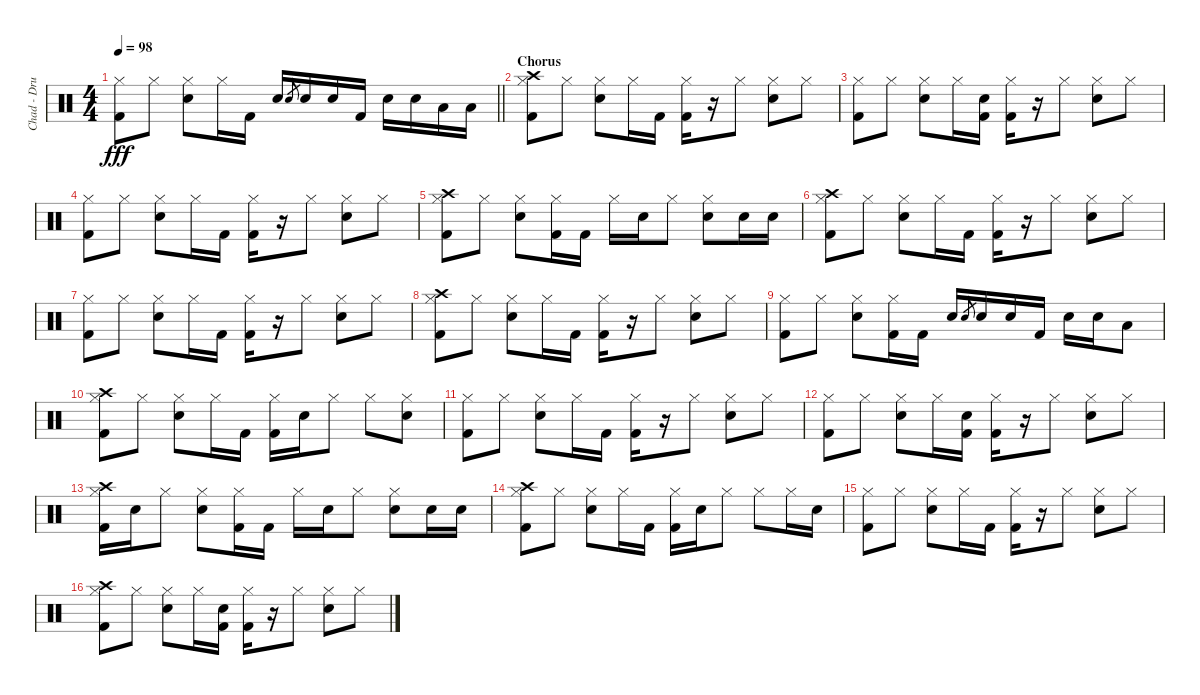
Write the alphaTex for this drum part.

\track ("Chad - Drums" "Chad - Dru") {instrument percussion}
\staff {score}
\articulation defaults
\ts (4 4)
\tempo 98
\clef neutral
\barLineRight lightlight
\ks c
("Hi-Hat (closed)" "Kick (hit) 2").8{dy fff} "Hi-Hat (closed)".8 ("Snare (hit) 2" "Hi-Hat (closed)").8 "Hi-Hat (closed)".16 "Kick (hit) 2".16 "Snare (hit) 2".16 "Snare (hit) 2".8{gr} "Snare (hit) 2".16 "Snare (hit) 2".16 "Kick (hit) 2".16 "Snare (hit) 2".16 "Snare (hit) 2".16 "Low Tom (hit)".16 "Low Tom (hit)".16 |
\section ("" "Chorus")
("Hi-Hat (closed)" "Crash high (hit)" "Kick (hit) 2").8 "Hi-Hat (closed)".8 ("Snare (hit) 2" "Hi-Hat (closed)").8 "Hi-Hat (closed)".16 "Kick (hit) 2".16 ("Hi-Hat (closed)" "Kick (hit) 2").16 r.16 "Hi-Hat (closed)".8 ("Snare (hit) 2" "Hi-Hat (closed)").8 "Hi-Hat (closed)".8 |
("Hi-Hat (closed)" "Kick (hit) 2").8 "Hi-Hat (closed)".8 ("Snare (hit) 2" "Hi-Hat (closed)").8 "Hi-Hat (closed)".16 ("Snare (hit) 2" "Kick (hit) 2").16 ("Hi-Hat (closed)" "Kick (hit) 2").16 r.16 "Hi-Hat (closed)".8 ("Snare (hit) 2" "Hi-Hat (closed)").8 "Hi-Hat (closed)".8 |
("Hi-Hat (closed)" "Kick (hit) 2").8 "Hi-Hat (closed)".8 ("Snare (hit) 2" "Hi-Hat (closed)").8 "Hi-Hat (closed)".16 "Kick (hit) 2".16 ("Hi-Hat (closed)" "Kick (hit) 2").16 r.16 "Hi-Hat (closed)".8 ("Snare (hit) 2" "Hi-Hat (closed)").8 "Hi-Hat (closed)".8 |
("Hi-Hat (closed)" "Crash high (hit)" "Kick (hit) 2").8 "Hi-Hat (closed)".8 ("Snare (hit) 2" "Hi-Hat (closed)").8 ("Hi-Hat (closed)" "Kick (hit) 2").16 "Kick (hit) 2".16 "Hi-Hat (closed)".16 "Snare (hit) 2".16 "Hi-Hat (closed)".8 ("Snare (hit) 2" "Hi-Hat (closed)").8 "Snare (hit) 2".16 "Snare (hit) 2".16 |
("Hi-Hat (closed)" "Crash high (hit)" "Kick (hit) 2").8 "Hi-Hat (closed)".8 ("Snare (hit) 2" "Hi-Hat (closed)").8 "Hi-Hat (closed)".16 "Kick (hit) 2".16 ("Hi-Hat (closed)" "Kick (hit) 2").16 r.16 "Hi-Hat (closed)".8 ("Snare (hit) 2" "Hi-Hat (closed)").8 "Hi-Hat (closed)".8 |
("Hi-Hat (closed)" "Kick (hit) 2").8 "Hi-Hat (closed)".8 ("Snare (hit) 2" "Hi-Hat (closed)").8 "Hi-Hat (closed)".16 "Kick (hit) 2".16 ("Hi-Hat (closed)" "Kick (hit) 2").16 r.16 "Hi-Hat (closed)".8 ("Snare (hit) 2" "Hi-Hat (closed)").8 "Hi-Hat (closed)".8 |
("Hi-Hat (closed)" "Crash high (hit)" "Kick (hit) 2").8 "Hi-Hat (closed)".8 ("Snare (hit) 2" "Hi-Hat (closed)").8 "Hi-Hat (closed)".16 "Kick (hit) 2".16 ("Hi-Hat (closed)" "Kick (hit) 2").16 r.16 "Hi-Hat (closed)".8 ("Snare (hit) 2" "Hi-Hat (closed)").8 "Hi-Hat (closed)".8 |
("Hi-Hat (closed)" "Kick (hit) 2").8 "Hi-Hat (closed)".8 ("Snare (hit) 2" "Hi-Hat (closed)").8 ("Hi-Hat (closed)" "Kick (hit) 2").16 "Kick (hit) 2".16 "Snare (hit) 2".16 "Snare (hit) 2".8{gr} "Snare (hit) 2".16 "Snare (hit) 2".16 "Kick (hit) 2".16 "Snare (hit) 2".16 "Snare (hit) 2".16 "Low Tom (hit)".8 |
("Hi-Hat (closed)" "Crash high (hit)" "Kick (hit) 2").8 "Hi-Hat (closed)".8 ("Snare (hit) 2" "Hi-Hat (closed)").8 "Hi-Hat (closed)".16 "Kick (hit) 2".16 ("Hi-Hat (closed)" "Kick (hit) 2").16 "Snare (hit) 2".16 "Hi-Hat (closed)".8 "Hi-Hat (closed)".8 ("Snare (hit) 2" "Hi-Hat (closed)").8 |
("Hi-Hat (closed)" "Kick (hit) 2").8 "Hi-Hat (closed)".8 ("Snare (hit) 2" "Hi-Hat (closed)").8 "Hi-Hat (closed)".16 "Kick (hit) 2".16 ("Hi-Hat (closed)" "Kick (hit) 2").16 r.16 "Hi-Hat (closed)".8 ("Snare (hit) 2" "Hi-Hat (closed)").8 "Hi-Hat (closed)".8 |
("Hi-Hat (closed)" "Kick (hit) 2").8 "Hi-Hat (closed)".8 ("Snare (hit) 2" "Hi-Hat (closed)").8 "Hi-Hat (closed)".16 ("Snare (hit) 2" "Kick (hit) 2").16 ("Hi-Hat (closed)" "Kick (hit) 2").16 r.16 "Hi-Hat (closed)".8 ("Snare (hit) 2" "Hi-Hat (closed)").8 "Hi-Hat (closed)".8 |
("Hi-Hat (closed)" "Crash high (hit)" "Kick (hit) 2").16 "Snare (hit) 2".16 "Hi-Hat (closed)".8 ("Snare (hit) 2" "Hi-Hat (closed)").8 ("Hi-Hat (closed)" "Kick (hit) 2").16 "Kick (hit) 2".16 "Hi-Hat (closed)".16 "Snare (hit) 2".16 "Hi-Hat (closed)".8 ("Snare (hit) 2" "Hi-Hat (closed)").8 "Snare (hit) 2".16 "Snare (hit) 2".16 |
("Hi-Hat (closed)" "Crash high (hit)" "Kick (hit) 2").8 "Hi-Hat (closed)".8 ("Snare (hit) 2" "Hi-Hat (closed)").8 "Hi-Hat (closed)".16 "Kick (hit) 2".16 ("Hi-Hat (closed)" "Kick (hit) 2").16 "Snare (hit) 2".16 "Hi-Hat (closed)".8 "Hi-Hat (closed)".8 "Hi-Hat (closed)".16 "Snare (hit) 2".16 |
("Hi-Hat (closed)" "Kick (hit) 2").8 "Hi-Hat (closed)".8 ("Snare (hit) 2" "Hi-Hat (closed)").8 "Hi-Hat (closed)".16 "Kick (hit) 2".16 ("Hi-Hat (closed)" "Kick (hit) 2").16 r.16 "Hi-Hat (closed)".8 ("Snare (hit) 2" "Hi-Hat (closed)").8 "Hi-Hat (closed)".8 |
("Hi-Hat (closed)" "Crash high (hit)" "Kick (hit) 2").8 "Hi-Hat (closed)".8 ("Snare (hit) 2" "Hi-Hat (closed)").8 "Hi-Hat (closed)".16 ("Snare (hit) 2" "Kick (hit) 2").16 ("Hi-Hat (closed)" "Kick (hit) 2").16 r.16 "Hi-Hat (closed)".8 ("Snare (hit) 2" "Hi-Hat (closed)").8 "Hi-Hat (closed)".8
